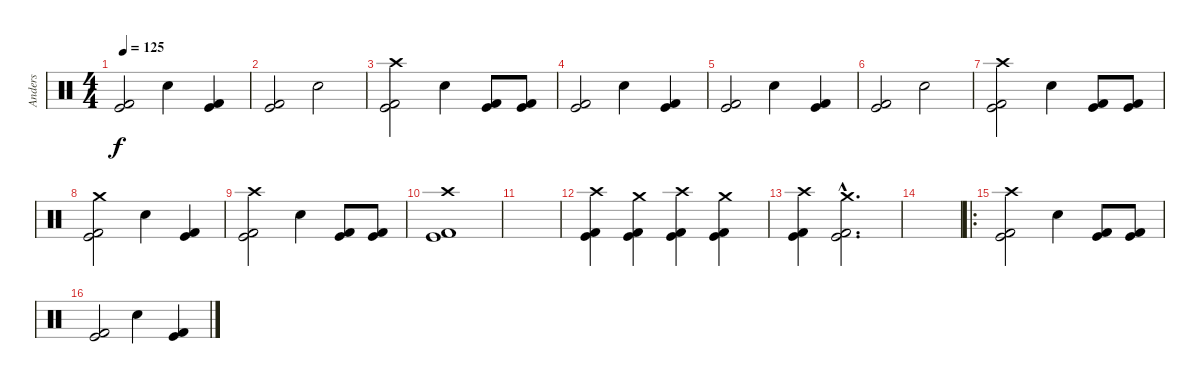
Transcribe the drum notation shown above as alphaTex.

\track ("Anders" "Anders") {instrument percussion}
\staff {score}
\articulation defaults
\ts (4 4)
\tempo 125
\clef neutral
\ks c
("Kick (hit) 2" "Kick (hit)").2{dy f} "Electric Snare (hit)".4 ("Kick (hit) 2" "Kick (hit)").4 |
("Kick (hit) 2" "Kick (hit)").2 "Electric Snare (hit)".2 |
("Crash high (hit)" "Kick (hit) 2" "Kick (hit)").2 "Electric Snare (hit)".4 ("Kick (hit) 2" "Kick (hit)").8 ("Kick (hit) 2" "Kick (hit)").8 |
("Kick (hit) 2" "Kick (hit)").2 "Electric Snare (hit)".4 ("Kick (hit) 2" "Kick (hit)").4 |
("Kick (hit) 2" "Kick (hit)").2 "Electric Snare (hit)".4 ("Kick (hit) 2" "Kick (hit)").4 |
("Kick (hit) 2" "Kick (hit)").2 "Electric Snare (hit)".2 |
("Crash high (hit)" "Kick (hit) 2" "Kick (hit)").2 "Electric Snare (hit)".4 ("Kick (hit) 2" "Kick (hit)").8 ("Kick (hit) 2" "Kick (hit)").8 |
("Crash medium (hit)" "Kick (hit)" "Kick (hit) 2").2 "Electric Snare (hit)".4 ("Kick (hit) 2" "Kick (hit)").4 |
("Crash high (hit)" "Kick (hit) 2" "Kick (hit)").2 "Electric Snare (hit)".4 ("Kick (hit) 2" "Kick (hit)").8 ("Kick (hit) 2" "Kick (hit)").8 |
("Crash high (hit)" "Kick (hit) 2" "Kick (hit)").1 |
|
("Crash high (hit)" "Kick (hit) 2" "Kick (hit)").4 ("Crash medium (hit)" "Kick (hit) 2" "Kick (hit)").4 ("Crash high (hit)" "Kick (hit) 2" "Kick (hit)").4 ("Crash medium (hit)" "Kick (hit) 2" "Kick (hit)").4 |
("Crash high (hit)" "Kick (hit) 2" "Kick (hit)").4 ("Crash medium (hit)"{hac} "Kick (hit) 2"{hac} "Kick (hit)"{hac}).2{d} |
|
\ro
("Crash high (hit)" "Kick (hit) 2" "Kick (hit)").2 "Electric Snare (hit)".4 ("Kick (hit) 2" "Kick (hit)").8 ("Kick (hit) 2" "Kick (hit)").8 |
("Kick (hit) 2" "Kick (hit)").2 "Electric Snare (hit)".4 ("Kick (hit) 2" "Kick (hit)").4
